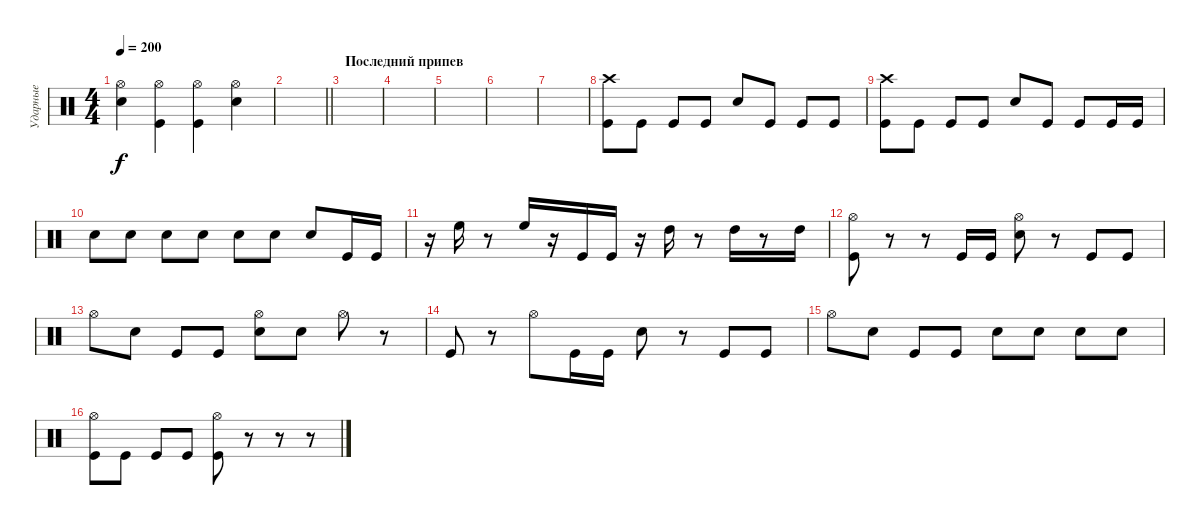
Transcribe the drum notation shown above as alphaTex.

\track ("Ударные" "Ударные") {instrument percussion}
\staff {score}
\articulation defaults
\ts (4 4)
\tempo 200
\clef neutral
\ks c
("Hi-Hat (open)" "Snare (hit) 2").4{dy f} ("Hi-Hat (open)" "Kick (hit)").4 ("Hi-Hat (open)" "Kick (hit)").4 ("Hi-Hat (open)" "Snare (hit) 2").4 |
\barLineRight lightlight
|
\section ("" "Последний припев")
|
|
|
|
|
("Crash high (hit)" "Kick (hit)").8 "Kick (hit)".8 "Kick (hit)".8 "Kick (hit)".8 "Snare (hit) 2".8 "Kick (hit)".8 "Kick (hit)".8 "Kick (hit)".8 |
("Crash high (hit)" "Kick (hit)").8 "Kick (hit)".8 "Kick (hit)".8 "Kick (hit)".8 "Snare (hit) 2".8 "Kick (hit)".8 "Kick (hit)".8 "Kick (hit)".16 "Kick (hit)".16 |
"Snare (hit) 2".8 "Snare (hit) 2".8 "Snare (hit) 2".8 "Snare (hit) 2".8 "Snare (hit) 2".8 "Snare (hit) 2".8 "Snare (hit) 2".8 "Kick (hit)".16 "Kick (hit)".16 |
r.16 "High Floor Tom (hit)".16 r.8 "High Floor Tom (hit)".16 r.16 "Kick (hit)".16 "Kick (hit)".16 r.16 "High Tom (hit)".16 r.8 "High Tom (hit)".16 r.8 "High Tom (hit)".16 |
("Hi-Hat (open)" "Kick (hit)").8 r.8 r.8 "Kick (hit)".16 "Kick (hit)".16 ("Hi-Hat (open)" "Snare (hit) 2").8 r.8 "Kick (hit)".8 "Kick (hit)".8 |
"Hi-Hat (open)".8 "Snare (hit) 2".8 "Kick (hit)".8 "Kick (hit)".8 ("Hi-Hat (open)" "Snare (hit) 2").8 "Snare (hit) 2".8 "Hi-Hat (open)".8 r.8 |
"Kick (hit)".8 r.8 "Hi-Hat (open)".8 "Kick (hit)".16 "Kick (hit)".16 "Snare (hit) 2".8 r.8 "Kick (hit)".8 "Kick (hit)".8 |
"Hi-Hat (open)".8 "Snare (hit) 2".8 "Kick (hit)".8 "Kick (hit)".8 "Snare (hit) 2".8 "Snare (hit) 2".8 "Snare (hit) 2".8 "Snare (hit) 2".8 |
("Hi-Hat (open)" "Kick (hit)").8 "Kick (hit)".8 "Kick (hit)".8 "Kick (hit)".8 ("Hi-Hat (open)" "Kick (hit)").8 r.8 r.8 r.8
